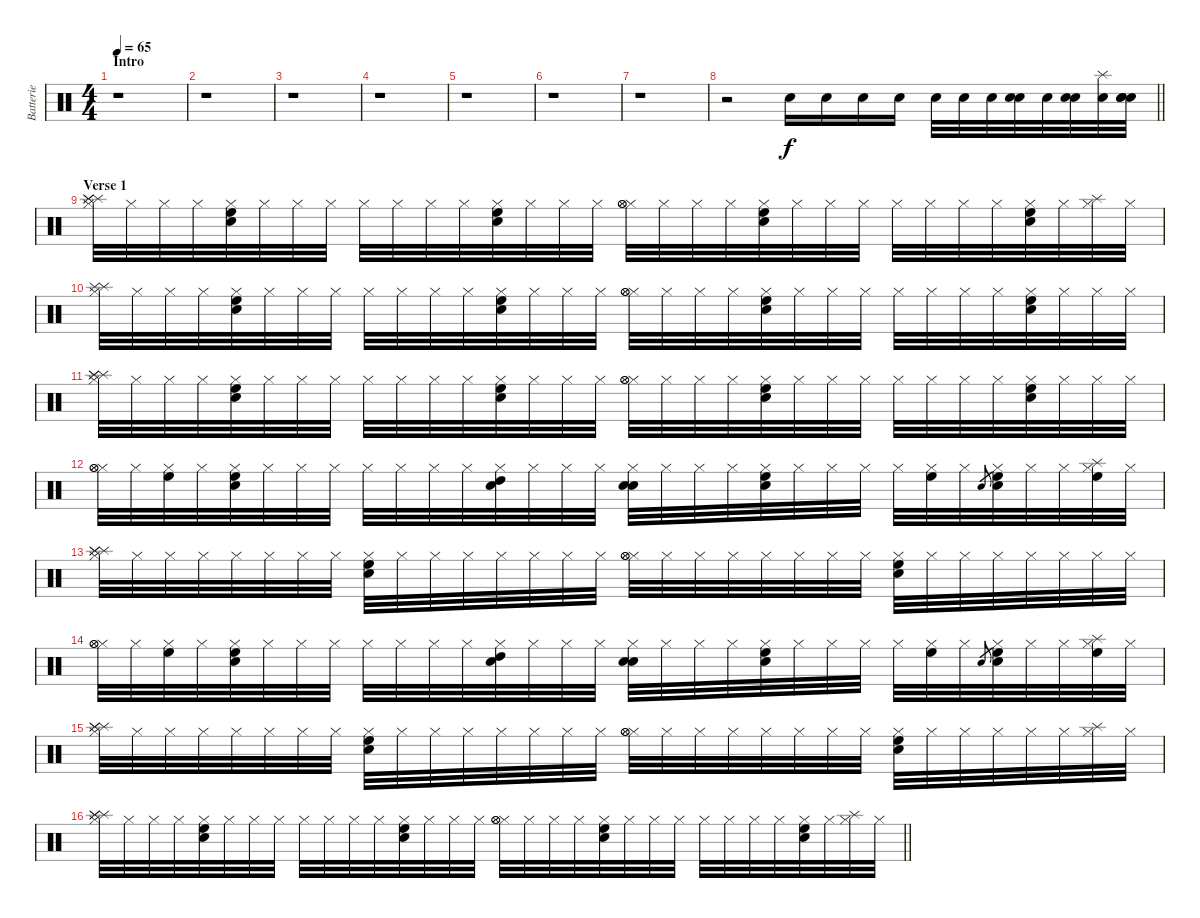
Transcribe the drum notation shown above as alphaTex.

\track ("Batterie" "Batterie") {instrument percussion}
\staff {score}
\articulation defaults
\ts (4 4)
\section ("" "Intro")
\tempo 65
\clef neutral
\ks c
r.1{dy f} |
r.1 |
r.1 |
r.1 |
r.1 |
r.1 |
r.1 |
\barLineRight lightlight
r.2 "Snare (hit) 2".16 "Snare (hit) 2".16 "Snare (hit) 2".16 "Snare (hit) 2".16 "Snare (hit) 2".32 "Snare (hit) 2".32 "Snare (hit) 2".32 ("Snare (hit) 2" "Snare (hit) 2").32 "Snare (hit) 2".32 ("Snare (hit) 2" "Snare (hit) 2").32 ("Snare (hit) 2" "Splash (hit)").32 ("Snare (hit) 2" "Snare (hit) 2" "Snare (hit) 2").32 |
\section ("" "Verse 1")
("Hi-Hat (closed)" "Splash (hit)" "Splash (hit)" "Splash (hit)").32 "Hi-Hat (closed)".32 "Hi-Hat (closed)".32 "Hi-Hat (closed)".32 ("Hi-Hat (closed)" "Snare (hit) 2" "High Floor Tom (hit)").32 "Hi-Hat (closed)".32 "Hi-Hat (closed)".32 "Hi-Hat (closed)".32 "Hi-Hat (closed)".32 "Hi-Hat (closed)".32 "Hi-Hat (closed)".32 "Hi-Hat (closed)".32 ("Hi-Hat (closed)" "Snare (hit) 2" "High Floor Tom (hit)").32 "Hi-Hat (closed)".32 "Hi-Hat (closed)".32 "Hi-Hat (closed)".32 ("Hi-Hat (closed)" "Hi-Hat (open)" "Hi-Hat (open)").32 "Hi-Hat (closed)".32 "Hi-Hat (closed)".32 "Hi-Hat (closed)".32 ("Hi-Hat (closed)" "Snare (hit) 2" "High Floor Tom (hit)").32 "Hi-Hat (closed)".32 "Hi-Hat (closed)".32 "Hi-Hat (closed)".32 "Hi-Hat (closed)".32 "Hi-Hat (closed)".32 "Hi-Hat (closed)".32 "Hi-Hat (closed)".32 ("Hi-Hat (closed)" "Snare (hit) 2" "High Floor Tom (hit)").32 "Hi-Hat (closed)".32 ("Hi-Hat (closed)" "Splash (hit)").32 "Hi-Hat (closed)".32 |
("Hi-Hat (closed)" "Splash (hit)" "Splash (hit)").32 "Hi-Hat (closed)".32 "Hi-Hat (closed)".32 "Hi-Hat (closed)".32 ("Hi-Hat (closed)" "Snare (hit) 2" "High Floor Tom (hit)").32 "Hi-Hat (closed)".32 "Hi-Hat (closed)".32 "Hi-Hat (closed)".32 "Hi-Hat (closed)".32 "Hi-Hat (closed)".32 "Hi-Hat (closed)".32 "Hi-Hat (closed)".32 ("Hi-Hat (closed)" "Snare (hit) 2" "High Floor Tom (hit)").32 "Hi-Hat (closed)".32 "Hi-Hat (closed)".32 "Hi-Hat (closed)".32 ("Hi-Hat (closed)" "Hi-Hat (open)" "Hi-Hat (open)").32 "Hi-Hat (closed)".32 "Hi-Hat (closed)".32 "Hi-Hat (closed)".32 ("Hi-Hat (closed)" "Snare (hit) 2" "High Floor Tom (hit)").32 "Hi-Hat (closed)".32 "Hi-Hat (closed)".32 "Hi-Hat (closed)".32 "Hi-Hat (closed)".32 "Hi-Hat (closed)".32 "Hi-Hat (closed)".32 "Hi-Hat (closed)".32 ("Hi-Hat (closed)" "Snare (hit) 2" "High Floor Tom (hit)").32 "Hi-Hat (closed)".32 "Hi-Hat (closed)".32 "Hi-Hat (closed)".32 |
("Hi-Hat (closed)" "Splash (hit)" "Splash (hit)" "Splash (hit)").32 "Hi-Hat (closed)".32 "Hi-Hat (closed)".32 "Hi-Hat (closed)".32 ("Hi-Hat (closed)" "Snare (hit) 2" "High Floor Tom (hit)").32 "Hi-Hat (closed)".32 "Hi-Hat (closed)".32 "Hi-Hat (closed)".32 "Hi-Hat (closed)".32 "Hi-Hat (closed)".32 "Hi-Hat (closed)".32 "Hi-Hat (closed)".32 ("Hi-Hat (closed)" "Snare (hit) 2" "High Floor Tom (hit)").32 "Hi-Hat (closed)".32 "Hi-Hat (closed)".32 "Hi-Hat (closed)".32 ("Hi-Hat (closed)" "Hi-Hat (open)" "Hi-Hat (open)").32 "Hi-Hat (closed)".32 "Hi-Hat (closed)".32 "Hi-Hat (closed)".32 ("Hi-Hat (closed)" "Snare (hit) 2" "High Floor Tom (hit)").32 "Hi-Hat (closed)".32 "Hi-Hat (closed)".32 "Hi-Hat (closed)".32 "Hi-Hat (closed)".32 "Hi-Hat (closed)".32 "Hi-Hat (closed)".32 "Hi-Hat (closed)".32 ("Hi-Hat (closed)" "Snare (hit) 2" "High Floor Tom (hit)").32 "Hi-Hat (closed)".32 "Hi-Hat (closed)".32 "Hi-Hat (closed)".32 |
("Hi-Hat (closed)" "Hi-Hat (open)" "Hi-Hat (open)").32 "Hi-Hat (closed)".32 ("Hi-Hat (closed)" "High Floor Tom (hit)").32 "Hi-Hat (closed)".32 ("Hi-Hat (closed)" "Snare (hit) 2" "High Floor Tom (hit)").32 "Hi-Hat (closed)".32 "Hi-Hat (closed)".32 "Hi-Hat (closed)".32 "Hi-Hat (closed)".32 "Hi-Hat (closed)".32 "Hi-Hat (closed)".32 "Hi-Hat (closed)".32 ("Hi-Hat (closed)" "Snare (hit) 2" "High Tom (hit)").32 "Hi-Hat (closed)".32 "Hi-Hat (closed)".32 "Hi-Hat (closed)".32 ("Hi-Hat (closed)" "Snare (hit) 2" "Snare (hit) 2").32 "Hi-Hat (closed)".32 "Hi-Hat (closed)".32 "Hi-Hat (closed)".32 ("Hi-Hat (closed)" "Snare (hit) 2" "High Floor Tom (hit)").32 "Hi-Hat (closed)".32 "Hi-Hat (closed)".32 "Hi-Hat (closed)".32 "Hi-Hat (closed)".32 ("Hi-Hat (closed)" "High Floor Tom (hit)").32 "Hi-Hat (closed)".32 "Snare (hit) 2".8{gr} ("Hi-Hat (closed)" "Snare (hit) 2" "High Floor Tom (hit)").32 "Hi-Hat (closed)".32 "Hi-Hat (closed)".32 ("Hi-Hat (closed)" "Splash (hit)" "High Floor Tom (hit)").32 "Hi-Hat (closed)".32 |
("Hi-Hat (closed)" "Splash (hit)" "Splash (hit)" "Splash (hit)").32 "Hi-Hat (closed)".32 "Hi-Hat (closed)".32 "Hi-Hat (closed)".32 "Hi-Hat (closed)".32 "Hi-Hat (closed)".32 "Hi-Hat (closed)".32 "Hi-Hat (closed)".32 ("Hi-Hat (closed)" "Snare (hit) 2" "High Floor Tom (hit)").32 "Hi-Hat (closed)".32 "Hi-Hat (closed)".32 "Hi-Hat (closed)".32 "Hi-Hat (closed)".32 "Hi-Hat (closed)".32 "Hi-Hat (closed)".32 "Hi-Hat (closed)".32 ("Hi-Hat (closed)" "Hi-Hat (open)" "Hi-Hat (open)").32 "Hi-Hat (closed)".32 "Hi-Hat (closed)".32 "Hi-Hat (closed)".32 "Hi-Hat (closed)".32 "Hi-Hat (closed)".32 "Hi-Hat (closed)".32 "Hi-Hat (closed)".32 ("Hi-Hat (closed)" "Snare (hit) 2" "High Floor Tom (hit)").32 "Hi-Hat (closed)".32 "Hi-Hat (closed)".32 "Hi-Hat (closed)".32 "Hi-Hat (closed)".32 "Hi-Hat (closed)".32 "Hi-Hat (closed)".32 "Hi-Hat (closed)".32 |
("Hi-Hat (closed)" "Hi-Hat (open)" "Hi-Hat (open)").32 "Hi-Hat (closed)".32 ("Hi-Hat (closed)" "High Floor Tom (hit)").32 "Hi-Hat (closed)".32 ("Hi-Hat (closed)" "Snare (hit) 2" "High Floor Tom (hit)").32 "Hi-Hat (closed)".32 "Hi-Hat (closed)".32 "Hi-Hat (closed)".32 "Hi-Hat (closed)".32 "Hi-Hat (closed)".32 "Hi-Hat (closed)".32 "Hi-Hat (closed)".32 ("Hi-Hat (closed)" "Snare (hit) 2" "High Tom (hit)").32 "Hi-Hat (closed)".32 "Hi-Hat (closed)".32 "Hi-Hat (closed)".32 ("Hi-Hat (closed)" "Snare (hit) 2" "Snare (hit) 2").32 "Hi-Hat (closed)".32 "Hi-Hat (closed)".32 "Hi-Hat (closed)".32 ("Hi-Hat (closed)" "Snare (hit) 2" "High Floor Tom (hit)").32 "Hi-Hat (closed)".32 "Hi-Hat (closed)".32 "Hi-Hat (closed)".32 "Hi-Hat (closed)".32 ("Hi-Hat (closed)" "High Floor Tom (hit)").32 "Hi-Hat (closed)".32 "Snare (hit) 2".8{gr} ("Hi-Hat (closed)" "Snare (hit) 2" "High Floor Tom (hit)").32 "Hi-Hat (closed)".32 "Hi-Hat (closed)".32 ("Hi-Hat (closed)" "Splash (hit)" "High Floor Tom (hit)").32 "Hi-Hat (closed)".32 |
("Hi-Hat (closed)" "Splash (hit)" "Splash (hit)" "Splash (hit)").32 "Hi-Hat (closed)".32 "Hi-Hat (closed)".32 "Hi-Hat (closed)".32 "Hi-Hat (closed)".32 "Hi-Hat (closed)".32 "Hi-Hat (closed)".32 "Hi-Hat (closed)".32 ("Hi-Hat (closed)" "Snare (hit) 2" "High Floor Tom (hit)").32 "Hi-Hat (closed)".32 "Hi-Hat (closed)".32 "Hi-Hat (closed)".32 "Hi-Hat (closed)".32 "Hi-Hat (closed)".32 "Hi-Hat (closed)".32 "Hi-Hat (closed)".32 ("Hi-Hat (closed)" "Hi-Hat (open)" "Hi-Hat (open)").32 "Hi-Hat (closed)".32 "Hi-Hat (closed)".32 "Hi-Hat (closed)".32 "Hi-Hat (closed)".32 "Hi-Hat (closed)".32 "Hi-Hat (closed)".32 "Hi-Hat (closed)".32 ("Hi-Hat (closed)" "Snare (hit) 2" "High Floor Tom (hit)").32 "Hi-Hat (closed)".32 "Hi-Hat (closed)".32 "Hi-Hat (closed)".32 "Hi-Hat (closed)".32 "Hi-Hat (closed)".32 ("Hi-Hat (closed)" "Splash (hit)").32 "Hi-Hat (closed)".32 |
\barLineRight lightlight
("Hi-Hat (closed)" "Splash (hit)" "Splash (hit)" "Splash (hit)").32 "Hi-Hat (closed)".32 "Hi-Hat (closed)".32 "Hi-Hat (closed)".32 ("Hi-Hat (closed)" "Snare (hit) 2" "High Floor Tom (hit)").32 "Hi-Hat (closed)".32 "Hi-Hat (closed)".32 "Hi-Hat (closed)".32 "Hi-Hat (closed)".32 "Hi-Hat (closed)".32 "Hi-Hat (closed)".32 "Hi-Hat (closed)".32 ("Hi-Hat (closed)" "Snare (hit) 2" "High Floor Tom (hit)").32 "Hi-Hat (closed)".32 "Hi-Hat (closed)".32 "Hi-Hat (closed)".32 ("Hi-Hat (closed)" "Hi-Hat (open)" "Hi-Hat (open)").32 "Hi-Hat (closed)".32 "Hi-Hat (closed)".32 "Hi-Hat (closed)".32 ("Hi-Hat (closed)" "Snare (hit) 2" "High Floor Tom (hit)").32 "Hi-Hat (closed)".32 "Hi-Hat (closed)".32 "Hi-Hat (closed)".32 "Hi-Hat (closed)".32 "Hi-Hat (closed)".32 "Hi-Hat (closed)".32 "Hi-Hat (closed)".32 ("Hi-Hat (closed)" "Snare (hit) 2" "High Floor Tom (hit)").32 "Hi-Hat (closed)".32 ("Hi-Hat (closed)" "Splash (hit)").32 "Hi-Hat (closed)".32
